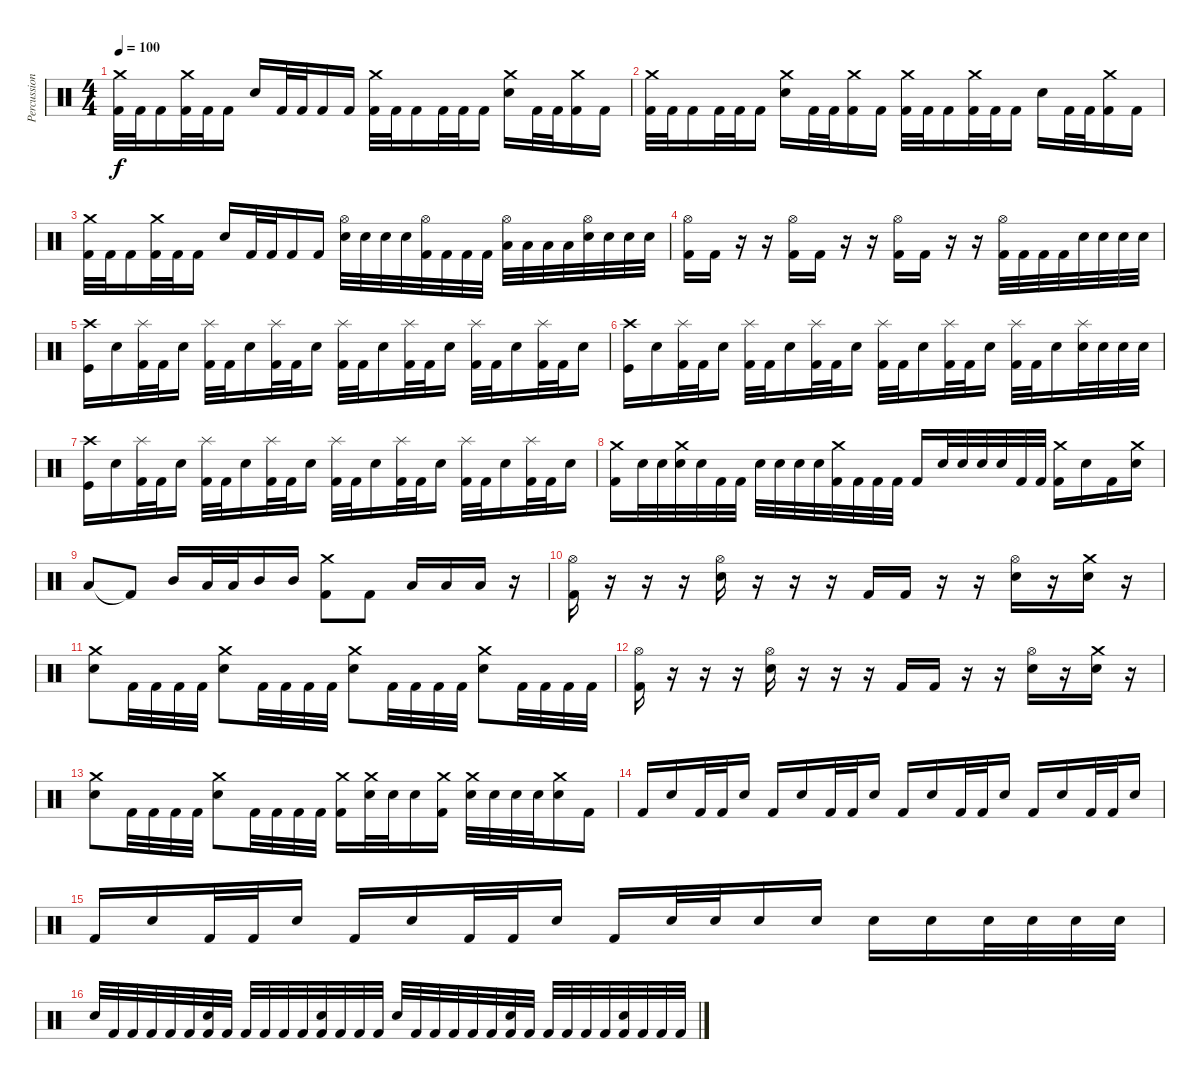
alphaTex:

\track ("Percussion" "Percussion") {instrument percussion}
\staff {score}
\articulation defaults
\ts (4 4)
\tempo 100
\clef neutral
\ks c
("Crash medium (hit)" "Kick (hit) 2").32{dy f} "Kick (hit) 2".32 "Kick (hit) 2".16 ("Crash medium (hit)" "Kick (hit) 2").32 "Kick (hit) 2".32 "Kick (hit) 2".16 "Electric Snare (hit)".16 "Kick (hit) 2".32 "Kick (hit) 2".32 "Kick (hit) 2".16 "Kick (hit) 2".16 ("Crash medium (hit)" "Kick (hit) 2").32 "Kick (hit) 2".32 "Kick (hit) 2".16 "Kick (hit) 2".32 "Kick (hit) 2".32 "Kick (hit) 2".16 ("Crash medium (hit)" "Electric Snare (hit)").16 "Kick (hit) 2".32 "Kick (hit) 2".32 ("Crash medium (hit)" "Kick (hit) 2").16 "Kick (hit) 2".16 |
("Crash medium (hit)" "Kick (hit) 2").32 "Kick (hit) 2".32 "Kick (hit) 2".16 "Kick (hit) 2".32 "Kick (hit) 2".32 "Kick (hit) 2".16 ("Crash medium (hit)" "Electric Snare (hit)").16 "Kick (hit) 2".32 "Kick (hit) 2".32 ("Crash medium (hit)" "Kick (hit) 2").16 "Kick (hit) 2".16 ("Crash medium (hit)" "Kick (hit) 2").32 "Kick (hit) 2".32 "Kick (hit) 2".16 ("Crash medium (hit)" "Kick (hit) 2").32 "Kick (hit) 2".32 "Kick (hit) 2".16 "Electric Snare (hit)".16 "Kick (hit) 2".32 "Kick (hit) 2".32 ("Crash medium (hit)" "Kick (hit) 2").16 "Kick (hit) 2".16 |
("Crash medium (hit)" "Kick (hit) 2").32 "Kick (hit) 2".32 "Kick (hit) 2".16 ("Crash medium (hit)" "Kick (hit) 2").32 "Kick (hit) 2".32 "Kick (hit) 2".16 "Electric Snare (hit)".16 "Kick (hit) 2".32 "Kick (hit) 2".32 "Kick (hit) 2".16 "Kick (hit) 2".16 ("Hi-Hat (open)" "Electric Snare (hit)").32 "Electric Snare (hit)".32 "Electric Snare (hit)".32 "Electric Snare (hit)".32 ("Hi-Hat (open)" "Kick (hit) 2").32 "Kick (hit) 2".32 "Kick (hit) 2".32 "Kick (hit) 2".32 ("Hi-Hat (open)" "Low Tom (hit)").32 "Low Tom (hit)".32 "Low Tom (hit)".32 "Low Tom (hit)".32 ("Hi-Hat (open)" "Snare (hit) 2").32 "Snare (hit) 2".32 "Snare (hit) 2".32 "Snare (hit) 2".32 |
("Hi-Hat (open)" "Kick (hit) 2").16 "Kick (hit) 2".16 r.16 r.16 ("Hi-Hat (open)" "Kick (hit) 2").16 "Kick (hit) 2".16 r.16 r.16 ("Hi-Hat (open)" "Kick (hit) 2").16 "Kick (hit) 2".16 r.16 r.16 ("Hi-Hat (open)" "Kick (hit) 2").32 "Kick (hit) 2".32 "Kick (hit) 2".32 "Kick (hit) 2".32 "Electric Snare (hit)".32 "Electric Snare (hit)".32 "Electric Snare (hit)".32 "Electric Snare (hit)".32 |
("Crash high (hit)" "Kick (hit)").16 "Electric Snare (hit)".16 ("Splash (hit)" "Kick (hit) 2").32 "Kick (hit) 2".32 "Electric Snare (hit)".16 ("Splash (hit)" "Kick (hit) 2").32 "Kick (hit) 2".32 "Electric Snare (hit)".16 ("Splash (hit)" "Kick (hit) 2").32 "Kick (hit) 2".32 "Electric Snare (hit)".16 ("Splash (hit)" "Kick (hit) 2").32 "Kick (hit) 2".32 "Electric Snare (hit)".16 ("Splash (hit)" "Kick (hit) 2").32 "Kick (hit) 2".32 "Electric Snare (hit)".16 ("Splash (hit)" "Kick (hit) 2").32 "Kick (hit) 2".32 "Electric Snare (hit)".16 ("Splash (hit)" "Kick (hit) 2").32 "Kick (hit) 2".32 "Electric Snare (hit)".16 |
("Crash high (hit)" "Kick (hit)").16 "Electric Snare (hit)".16 ("Splash (hit)" "Kick (hit) 2").32 "Kick (hit) 2".32 "Electric Snare (hit)".16 ("Splash (hit)" "Kick (hit) 2").32 "Kick (hit) 2".32 "Electric Snare (hit)".16 ("Splash (hit)" "Kick (hit) 2").32 "Kick (hit) 2".32 "Electric Snare (hit)".16 ("Splash (hit)" "Kick (hit) 2").32 "Kick (hit) 2".32 "Electric Snare (hit)".16 ("Splash (hit)" "Kick (hit) 2").32 "Kick (hit) 2".32 "Electric Snare (hit)".16 ("Splash (hit)" "Kick (hit) 2").32 "Kick (hit) 2".32 "Electric Snare (hit)".16 ("Splash (hit)" "Electric Snare (hit)").32 "Electric Snare (hit)".32 "Electric Snare (hit)".32 "Electric Snare (hit)".32 |
("Crash high (hit)" "Kick (hit)").16 "Electric Snare (hit)".16 ("Splash (hit)" "Kick (hit) 2").32 "Kick (hit) 2".32 "Electric Snare (hit)".16 ("Splash (hit)" "Kick (hit) 2").32 "Kick (hit) 2".32 "Electric Snare (hit)".16 ("Splash (hit)" "Kick (hit) 2").32 "Kick (hit) 2".32 "Electric Snare (hit)".16 ("Splash (hit)" "Kick (hit) 2").32 "Kick (hit) 2".32 "Electric Snare (hit)".16 ("Splash (hit)" "Kick (hit) 2").32 "Kick (hit) 2".32 "Electric Snare (hit)".16 ("Splash (hit)" "Kick (hit) 2").32 "Kick (hit) 2".32 "Electric Snare (hit)".16 ("Splash (hit)" "Kick (hit) 2").32 "Kick (hit) 2".32 "Electric Snare (hit)".16 |
("Crash medium (hit)" "Kick (hit) 2").16 "Electric Snare (hit)".32 "Electric Snare (hit)".32 ("Crash medium (hit)" "Electric Snare (hit)").32 "Electric Snare (hit)".32 "Kick (hit) 2".32 "Kick (hit) 2".32 "Electric Snare (hit)".32 "Electric Snare (hit)".32 "Electric Snare (hit)".32 "Electric Snare (hit)".32 ("Crash medium (hit)" "Kick (hit) 2").32 "Kick (hit) 2".32 "Kick (hit) 2".32 "Kick (hit) 2".32 "Kick (hit) 2".16 "Electric Snare (hit)".32 "Electric Snare (hit)".32 "Electric Snare (hit)".32 "Electric Snare (hit)".32 "Kick (hit) 2".32 "Kick (hit) 2".32 ("Crash medium (hit)" "Kick (hit) 2").16 "Electric Snare (hit)".16 "Kick (hit) 2".16 ("Crash medium (hit)" "Electric Snare (hit)").16 |
"Low Tom (hit)".8 "Kick (hit) 2"{t}.8 "Mid Tom (hit)".16 "Low Tom (hit)".32 "Low Tom (hit)".32 "Mid Tom (hit)".16 "Mid Tom (hit)".16 ("Crash medium (hit)" "Kick (hit) 2").8 "Kick (hit) 2".8 "Low Tom (hit)".16 "Low Tom (hit)".16 "Low Tom (hit)".16 r.16 |
("Hi-Hat (open)" "Kick (hit) 2").16 r.16 r.16 r.16 ("Snare (hit) 2" "Hi-Hat (open)").16 r.16 r.16 r.16 "Kick (hit) 2".16 "Kick (hit) 2".16 r.16 r.16 ("Hi-Hat (open)" "Snare (hit) 2").16 r.16 ("Crash medium (hit)" "Snare (hit) 2").16 r.16 |
("Crash medium (hit)" "Electric Snare (hit)").8 "Kick (hit) 2".32 "Kick (hit) 2".32 "Kick (hit) 2".32 "Kick (hit) 2".32 ("Crash medium (hit)" "Snare (hit) 2").8 "Kick (hit) 2".32 "Kick (hit) 2".32 "Kick (hit) 2".32 "Kick (hit) 2".32 ("Crash medium (hit)" "Electric Snare (hit)").8 "Kick (hit) 2".32 "Kick (hit) 2".32 "Kick (hit) 2".32 "Kick (hit) 2".32 ("Crash medium (hit)" "Snare (hit) 2").8 "Kick (hit) 2".32 "Kick (hit) 2".32 "Kick (hit) 2".32 "Kick (hit) 2".32 |
("Hi-Hat (open)" "Kick (hit) 2").16 r.16 r.16 r.16 ("Snare (hit) 2" "Hi-Hat (open)").16 r.16 r.16 r.16 "Kick (hit) 2".16 "Kick (hit) 2".16 r.16 r.16 ("Hi-Hat (open)" "Snare (hit) 2").16 r.16 ("Crash medium (hit)" "Snare (hit) 2").16 r.16 |
("Crash medium (hit)" "Electric Snare (hit)").8 "Kick (hit) 2".32 "Kick (hit) 2".32 "Kick (hit) 2".32 "Kick (hit) 2".32 ("Crash medium (hit)" "Snare (hit) 2").8 "Kick (hit) 2".32 "Kick (hit) 2".32 "Kick (hit) 2".32 "Kick (hit) 2".32 ("Crash medium (hit)" "Kick (hit) 2").16 ("Crash medium (hit)" "Electric Snare (hit)").32 "Electric Snare (hit)".32 "Electric Snare (hit)".16 ("Crash medium (hit)" "Kick (hit) 2").16 ("Crash medium (hit)" "Electric Snare (hit)").32 "Electric Snare (hit)".32 "Electric Snare (hit)".32 "Electric Snare (hit)".32 ("Crash medium (hit)" "Electric Snare (hit)").16 "Kick (hit) 2".16 |
"Kick (hit) 2".16 "Electric Snare (hit)".16 "Kick (hit) 2".32 "Kick (hit) 2".32 "Electric Snare (hit)".16 "Kick (hit) 2".16 "Electric Snare (hit)".16 "Kick (hit) 2".32 "Kick (hit) 2".32 "Electric Snare (hit)".16 "Kick (hit) 2".16 "Electric Snare (hit)".16 "Kick (hit) 2".32 "Kick (hit) 2".32 "Electric Snare (hit)".16 "Kick (hit) 2".16 "Electric Snare (hit)".16 "Kick (hit) 2".32 "Kick (hit) 2".32 "Electric Snare (hit)".16 |
"Kick (hit) 2".16 "Electric Snare (hit)".16 "Kick (hit) 2".32 "Kick (hit) 2".32 "Electric Snare (hit)".16 "Kick (hit) 2".16 "Electric Snare (hit)".16 "Kick (hit) 2".32 "Kick (hit) 2".32 "Electric Snare (hit)".16 "Kick (hit) 2".16 "Electric Snare (hit)".32 "Electric Snare (hit)".32 "Electric Snare (hit)".16 "Electric Snare (hit)".16 "Electric Snare (hit)".16 "Electric Snare (hit)".16 "Electric Snare (hit)".32 "Electric Snare (hit)".32 "Electric Snare (hit)".32 "Electric Snare (hit)".32 |
"Snare (hit) 2".32 "Kick (hit) 2".32 "Kick (hit) 2".32 "Kick (hit) 2".32 "Kick (hit) 2".32 "Kick (hit) 2".32 ("Kick (hit) 2" "Snare (hit) 2").32 "Kick (hit) 2".32 "Kick (hit) 2".32 "Kick (hit) 2".32 "Kick (hit) 2".32 "Kick (hit) 2".32 ("Kick (hit) 2" "Snare (hit) 2").32 "Kick (hit) 2".32 "Kick (hit) 2".32 "Kick (hit) 2".32 "Snare (hit) 2".32 "Kick (hit) 2".32 "Kick (hit) 2".32 "Kick (hit) 2".32 "Kick (hit) 2".32 "Kick (hit) 2".32 ("Kick (hit) 2" "Snare (hit) 2").32 "Kick (hit) 2".32 "Kick (hit) 2".32 "Kick (hit) 2".32 "Kick (hit) 2".32 "Kick (hit) 2".32 ("Kick (hit) 2" "Snare (hit) 2").32 "Kick (hit) 2".32 "Kick (hit) 2".32 "Kick (hit) 2".32
